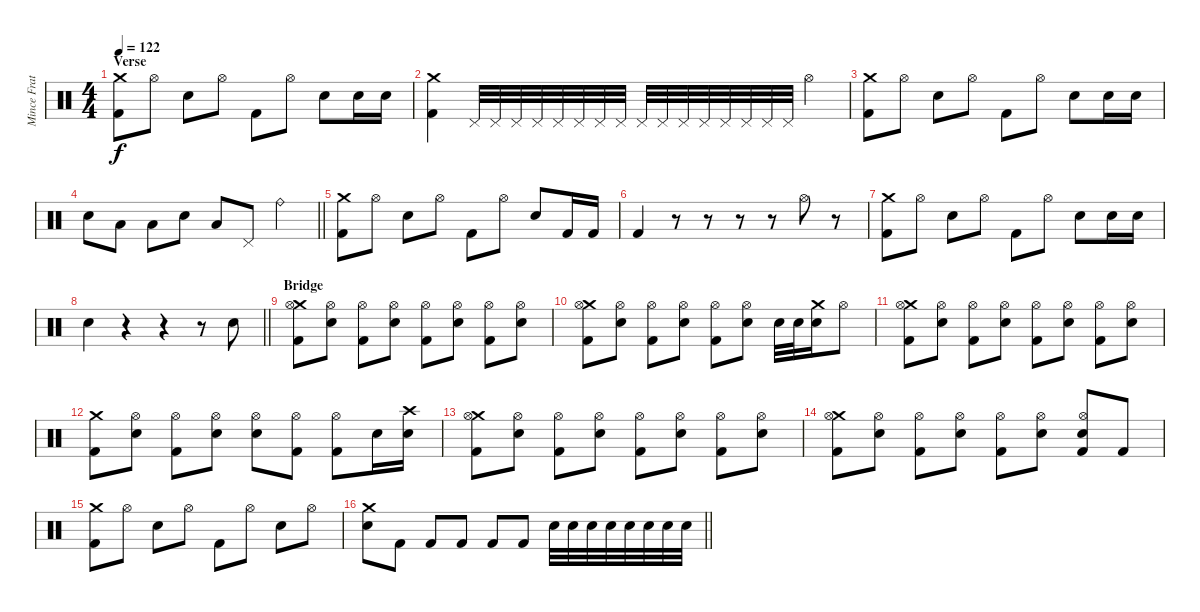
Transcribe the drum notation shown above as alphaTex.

\track ("Mince Fratelli" "Mince Frat") {instrument percussion}
\staff {score}
\articulation defaults
\ts (4 4)
\section ("" "Verse")
\tempo 122
\clef neutral
\ks c
("Crash medium (hit)" "Kick (hit) 2").8{dy f} "Hi-Hat (open)".8 "Snare (hit) 2".8 "Hi-Hat (open)".8 "Kick (hit) 2".8 "Hi-Hat (open)".8 "Snare (hit) 2".8 "Snare (hit) 2".16 "Snare (hit) 2".16 |
("Crash medium (hit)" "Kick (hit) 2").4 "Pedal Hi-Hat (hit)".32 "Pedal Hi-Hat (hit)".32 "Pedal Hi-Hat (hit)".32 "Pedal Hi-Hat (hit)".32 "Pedal Hi-Hat (hit)".32 "Pedal Hi-Hat (hit)".32 "Pedal Hi-Hat (hit)".32 "Pedal Hi-Hat (hit)".32 "Pedal Hi-Hat (hit)".32 "Pedal Hi-Hat (hit)".32 "Pedal Hi-Hat (hit)".32 "Pedal Hi-Hat (hit)".32 "Pedal Hi-Hat (hit)".32 "Pedal Hi-Hat (hit)".32 "Pedal Hi-Hat (hit)".32 "Pedal Hi-Hat (hit)".32 "Hi-Hat (open)".4 |
("Crash medium (hit)" "Kick (hit) 2").8 "Hi-Hat (open)".8 "Snare (hit) 2".8 "Hi-Hat (open)".8 "Kick (hit) 2".8 "Hi-Hat (open)".8 "Snare (hit) 2".8 "Snare (hit) 2".16 "Snare (hit) 2".16 |
\barLineRight lightlight "Snare (hit) 2".8 "Low Tom (hit)".8 "Low Tom (hit)".8 "Snare (hit) 2".8 "Low Tom (hit)".8 "Pedal Hi-Hat (hit)".8 "Ride (bell)".4
|
("Crash medium (hit)" "Kick (hit) 2").8 "Hi-Hat (open)".8 "Snare (hit) 2".8 "Hi-Hat (open)".8 "Kick (hit) 2".8 "Hi-Hat (open)".8 "Snare (hit) 2".8 "Kick (hit) 2".16 "Kick (hit) 2".16 |
"Kick (hit) 2".4 r.8 r.8 r.8 r.8 "Hi-Hat (open)".8 r.8 |
("Crash medium (hit)" "Kick (hit) 2").8 "Hi-Hat (open)".8 "Snare (hit) 2".8 "Hi-Hat (open)".8 "Kick (hit) 2".8 "Hi-Hat (open)".8 "Snare (hit) 2".8 "Snare (hit) 2".16 "Snare (hit) 2".16 |
\barLineRight lightlight "Snare (hit) 2".4
r.4 r.4 r.8 "Snare (hit) 2".8 |
\section ("" "Bridge")
("Crash medium (hit)" "Hi-Hat (open)" "Kick (hit) 2").8 ("Hi-Hat (open)" "Snare (hit) 2").8 ("Hi-Hat (open)" "Kick (hit) 2").8 ("Hi-Hat (open)" "Snare (hit) 2").8 ("Hi-Hat (open)" "Kick (hit) 2").8 ("Hi-Hat (open)" "Snare (hit) 2").8 ("Hi-Hat (open)" "Kick (hit) 2").8 ("Hi-Hat (open)" "Snare (hit) 2").8 |
("Crash medium (hit)" "Hi-Hat (open)" "Kick (hit) 2").8 ("Hi-Hat (open)" "Snare (hit) 2").8 ("Hi-Hat (open)" "Kick (hit) 2").8 ("Hi-Hat (open)" "Snare (hit) 2").8 ("Hi-Hat (open)" "Kick (hit) 2").8 ("Hi-Hat (open)" "Snare (hit) 2").8 "Snare (hit) 2".32 "Snare (hit) 2".32 ("Crash medium (hit)" "Snare (hit) 2").16 "Hi-Hat (open)".8 |
("Crash medium (hit)" "Hi-Hat (open)" "Kick (hit) 2").8 ("Hi-Hat (open)" "Snare (hit) 2").8 ("Hi-Hat (open)" "Kick (hit) 2").8 ("Hi-Hat (open)" "Snare (hit) 2").8 ("Hi-Hat (open)" "Kick (hit) 2").8 ("Hi-Hat (open)" "Snare (hit) 2").8 ("Hi-Hat (open)" "Kick (hit) 2").8 ("Hi-Hat (open)" "Snare (hit) 2").8 |
("Crash medium (hit)" "Kick (hit) 2").8 ("Hi-Hat (open)" "Snare (hit) 2").8 ("Hi-Hat (open)" "Kick (hit) 2").8 ("Hi-Hat (open)" "Snare (hit) 2").8 ("Hi-Hat (open)" "Snare (hit) 2").8 ("Hi-Hat (open)" "Kick (hit) 2").8 ("Hi-Hat (open)" "Kick (hit) 2").8 "Snare (hit) 2".16 ("Crash high (hit)" "Snare (hit) 2").16 |
("Crash medium (hit)" "Hi-Hat (open)" "Kick (hit) 2").8 ("Hi-Hat (open)" "Snare (hit) 2").8 ("Hi-Hat (open)" "Kick (hit) 2").8 ("Hi-Hat (open)" "Snare (hit) 2").8 ("Hi-Hat (open)" "Kick (hit) 2").8 ("Hi-Hat (open)" "Snare (hit) 2").8 ("Hi-Hat (open)" "Kick (hit) 2").8 ("Hi-Hat (open)" "Snare (hit) 2").8 |
("Crash medium (hit)" "Hi-Hat (open)" "Kick (hit) 2").8 ("Hi-Hat (open)" "Snare (hit) 2").8 ("Hi-Hat (open)" "Kick (hit) 2").8 ("Hi-Hat (open)" "Snare (hit) 2").8 ("Hi-Hat (open)" "Kick (hit) 2").8 ("Hi-Hat (open)" "Snare (hit) 2").8 ("Hi-Hat (open)" "Snare (hit) 2" "Kick (hit) 2").8 "Kick (hit) 2".8 |
("Crash medium (hit)" "Kick (hit) 2").8 "Hi-Hat (open)".8 "Snare (hit) 2".8 "Hi-Hat (open)".8 "Kick (hit) 2".8 "Hi-Hat (open)".8 "Snare (hit) 2".8 "Hi-Hat (open)".8 |
\barLineRight lightlight
("Crash medium (hit)" "Snare (hit) 2").8 "Kick (hit) 2".8 "Kick (hit) 2".8 "Kick (hit) 2".8 "Kick (hit) 2".8 "Kick (hit) 2".8 "Snare (hit) 2".32 "Snare (hit) 2".32 "Snare (hit) 2".32 "Snare (hit) 2".32 "Snare (hit) 2".32 "Snare (hit) 2".32 "Snare (hit) 2".32 "Snare (hit) 2".32
